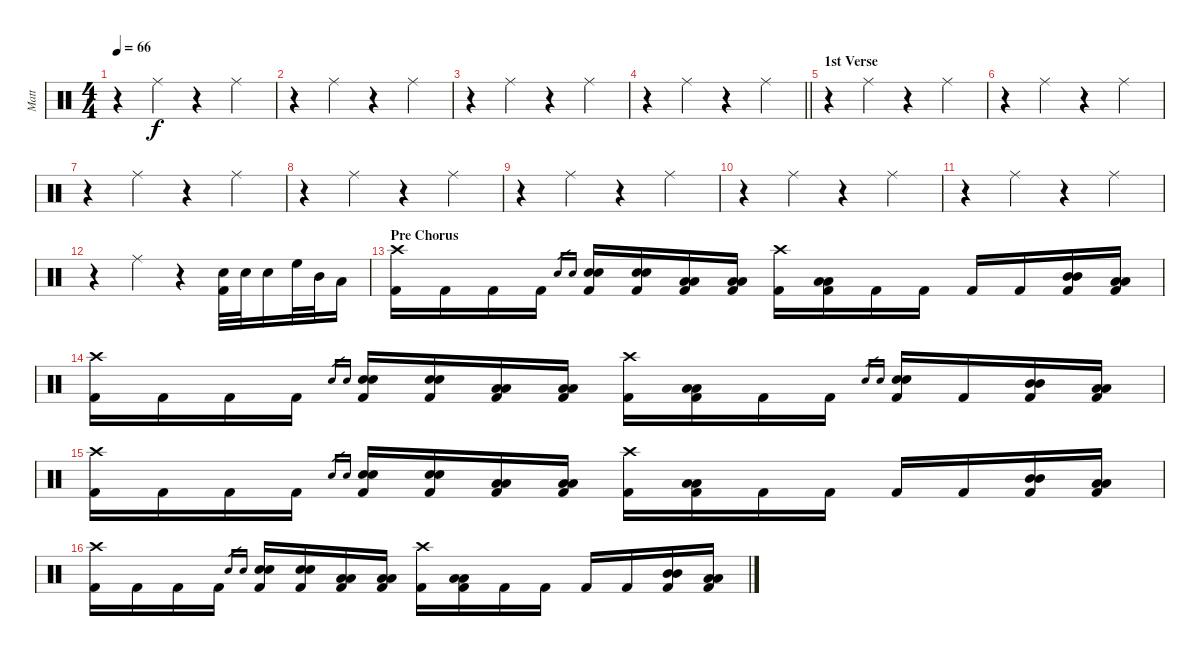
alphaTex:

\track ("Matt" "Matt") {instrument percussion}
\staff {score}
\articulation defaults
\ts (4 4)
\tempo 66
\clef neutral
\ks c
r.4{dy f} "Ride (middle)".4 r.4 "Ride (middle)".4 |
r.4 "Ride (middle)".4 r.4 "Ride (middle)".4 |
r.4 "Ride (middle)".4 r.4 "Ride (middle)".4 |
\barLineRight lightlight
r.4 "Ride (middle)".4 r.4 "Ride (middle)".4 |
\section ("" "1st Verse")
r.4 "Ride (middle)".4 r.4 "Ride (middle)".4 |
r.4 "Ride (middle)".4 r.4 "Ride (middle)".4 |
r.4 "Ride (middle)".4 r.4 "Ride (middle)".4 |
r.4 "Ride (middle)".4 r.4 "Ride (middle)".4 |
r.4 "Ride (middle)".4 r.4 "Ride (middle)".4 |
r.4 "Ride (middle)".4 r.4 "Ride (middle)".4 |
r.4 "Ride (middle)".4 r.4 "Ride (middle)".4 |
r.4 "Ride (middle)".4 r.4 ("Snare (hit) 2" "Kick (hit) 2").32 "Snare (hit) 2".32 "Snare (hit) 2".16 "High Floor Tom (hit)".32 "Mid Tom (hit)".32 "Low Tom (hit)".16 |
\section ("" "Pre Chorus")
("Crash high (hit)" "Kick (hit) 2").16 "Kick (hit) 2".16 "Kick (hit) 2".16 "Kick (hit) 2".16 "Snare (hit) 2".16{gr} "Snare (hit) 2".16{gr} ("Snare (hit) 2" "Snare (hit) 2" "Kick (hit) 2").16 ("Snare (hit) 2" "Snare (hit) 2" "Kick (hit) 2").16 ("Low Tom (hit)" "Low Tom (hit)" "Kick (hit) 2").16 ("Low Tom (hit)" "Low Tom (hit)" "Kick (hit) 2").16 ("Crash high (hit)" "Kick (hit) 2").16 ("Low Tom (hit)" "Low Tom (hit)" "Kick (hit) 2").16 "Kick (hit) 2".16 "Kick (hit) 2".16 "Kick (hit) 2".16 "Kick (hit) 2".16 ("Mid Tom (hit)" "Mid Tom (hit)" "Kick (hit) 2").16 ("Low Tom (hit)" "Low Tom (hit)" "Kick (hit) 2").16 |
("Crash high (hit)" "Kick (hit) 2").16 "Kick (hit) 2".16 "Kick (hit) 2".16 "Kick (hit) 2".16 "Snare (hit) 2".16{gr} "Snare (hit) 2".16{gr} ("Snare (hit) 2" "Snare (hit) 2" "Kick (hit) 2").16 ("Snare (hit) 2" "Snare (hit) 2" "Kick (hit) 2").16 ("Low Tom (hit)" "Low Tom (hit)" "Kick (hit) 2").16 ("Low Tom (hit)" "Low Tom (hit)" "Kick (hit) 2").16 ("Crash high (hit)" "Kick (hit) 2").16 ("Low Tom (hit)" "Low Tom (hit)" "Kick (hit) 2").16 "Kick (hit) 2".16 "Kick (hit) 2".16 "Snare (hit) 2".16{gr} "Snare (hit) 2".16{gr} ("Snare (hit) 2" "Snare (hit) 2" "Kick (hit) 2").16 "Kick (hit) 2".16 ("Mid Tom (hit)" "Mid Tom (hit)" "Kick (hit) 2").16 ("Low Tom (hit)" "Low Tom (hit)" "Kick (hit) 2").16 |
("Crash high (hit)" "Kick (hit) 2").16 "Kick (hit) 2".16 "Kick (hit) 2".16 "Kick (hit) 2".16 "Snare (hit) 2".16{gr} "Snare (hit) 2".16{gr} ("Snare (hit) 2" "Snare (hit) 2" "Kick (hit) 2").16 ("Snare (hit) 2" "Snare (hit) 2" "Kick (hit) 2").16 ("Low Tom (hit)" "Low Tom (hit)" "Kick (hit) 2").16 ("Low Tom (hit)" "Low Tom (hit)" "Kick (hit) 2").16 ("Crash high (hit)" "Kick (hit) 2").16 ("Low Tom (hit)" "Low Tom (hit)" "Kick (hit) 2").16 "Kick (hit) 2".16 "Kick (hit) 2".16 "Kick (hit) 2".16 "Kick (hit) 2".16 ("Mid Tom (hit)" "Mid Tom (hit)" "Kick (hit) 2").16 ("Low Tom (hit)" "Low Tom (hit)" "Kick (hit) 2").16 |
("Crash high (hit)" "Kick (hit) 2").16 "Kick (hit) 2".16 "Kick (hit) 2".16 "Kick (hit) 2".16 "Snare (hit) 2".16{gr} "Snare (hit) 2".16{gr} ("Snare (hit) 2" "Snare (hit) 2" "Kick (hit) 2").16 ("Snare (hit) 2" "Snare (hit) 2" "Kick (hit) 2").16 ("Low Tom (hit)" "Low Tom (hit)" "Kick (hit) 2").16 ("Low Tom (hit)" "Low Tom (hit)" "Kick (hit) 2").16 ("Crash high (hit)" "Kick (hit) 2").16 ("Low Tom (hit)" "Low Tom (hit)" "Kick (hit) 2").16 "Kick (hit) 2".16 "Kick (hit) 2".16 "Kick (hit) 2".16 "Kick (hit) 2".16 ("Mid Tom (hit)" "Mid Tom (hit)" "Kick (hit) 2").16 ("Low Tom (hit)" "Low Tom (hit)" "Kick (hit) 2").16
